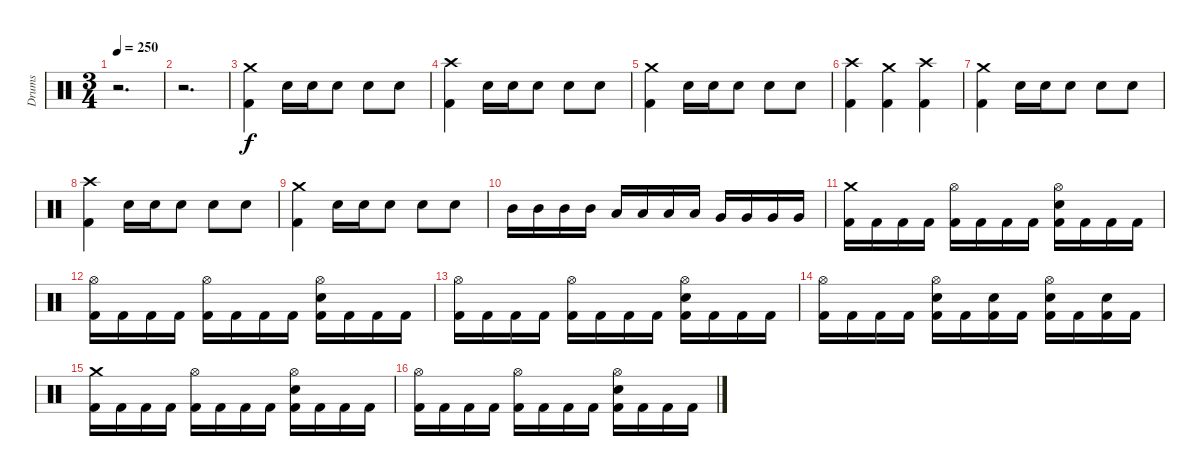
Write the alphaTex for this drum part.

\track ("Drums" "Drums") {instrument percussion}
\staff {score}
\articulation defaults
\ts (3 4)
\tempo 250
\clef neutral
\ks c
r.2{d dy f} |
r.2{d} |
("Crash medium (hit)" "Kick (hit) 2").4 "Snare (hit) 2".16 "Snare (hit) 2".16 "Snare (hit) 2".8 "Snare (hit) 2".8 "Snare (hit) 2".8 |
("Crash high (hit)" "Kick (hit) 2").4 "Snare (hit) 2".16 "Snare (hit) 2".16 "Snare (hit) 2".8 "Snare (hit) 2".8 "Snare (hit) 2".8 |
("Crash medium (hit)" "Kick (hit) 2").4 "Snare (hit) 2".16 "Snare (hit) 2".16 "Snare (hit) 2".8 "Snare (hit) 2".8 "Snare (hit) 2".8 |
("Crash high (hit)" "Kick (hit) 2").4 ("Crash medium (hit)" "Kick (hit) 2").4 ("Crash high (hit)" "Kick (hit) 2").4 |
("Crash medium (hit)" "Kick (hit) 2").4 "Snare (hit) 2".16 "Snare (hit) 2".16 "Snare (hit) 2".8 "Snare (hit) 2".8 "Snare (hit) 2".8 |
("Crash high (hit)" "Kick (hit) 2").4 "Snare (hit) 2".16 "Snare (hit) 2".16 "Snare (hit) 2".8 "Snare (hit) 2".8 "Snare (hit) 2".8 |
("Crash medium (hit)" "Kick (hit) 2").4 "Snare (hit) 2".16 "Snare (hit) 2".16 "Snare (hit) 2".8 "Snare (hit) 2".8 "Snare (hit) 2".8 |
"Mid Tom (hit)".16 "Mid Tom (hit)".16 "Mid Tom (hit)".16 "Mid Tom (hit)".16 "Low Tom (hit)".16 "Low Tom (hit)".16 "Low Tom (hit)".16 "Low Tom (hit)".16 "Very Low Tom (hit)".16 "Very Low Tom (hit)".16 "Very Low Tom (hit)".16 "Very Low Tom (hit)".16 |
("Crash medium (hit)" "Kick (hit) 2").16 "Kick (hit) 2".16 "Kick (hit) 2".16 "Kick (hit) 2".16 ("Hi-Hat (open)" "Kick (hit) 2").16 "Kick (hit) 2".16 "Kick (hit) 2".16 "Kick (hit) 2".16 ("Kick (hit) 2" "Hi-Hat (open)" "Snare (hit) 2").16 "Kick (hit) 2".16 "Kick (hit) 2".16 "Kick (hit) 2".16 |
("Hi-Hat (open)" "Kick (hit) 2").16 "Kick (hit) 2".16 "Kick (hit) 2".16 "Kick (hit) 2".16 ("Hi-Hat (open)" "Kick (hit) 2").16 "Kick (hit) 2".16 "Kick (hit) 2".16 "Kick (hit) 2".16 ("Kick (hit) 2" "Hi-Hat (open)" "Snare (hit) 2").16 "Kick (hit) 2".16 "Kick (hit) 2".16 "Kick (hit) 2".16 |
("Hi-Hat (open)" "Kick (hit) 2").16 "Kick (hit) 2".16 "Kick (hit) 2".16 "Kick (hit) 2".16 ("Hi-Hat (open)" "Kick (hit) 2").16 "Kick (hit) 2".16 "Kick (hit) 2".16 "Kick (hit) 2".16 ("Kick (hit) 2" "Hi-Hat (open)" "Snare (hit) 2").16 "Kick (hit) 2".16 "Kick (hit) 2".16 "Kick (hit) 2".16 |
("Hi-Hat (open)" "Kick (hit) 2").16 "Kick (hit) 2".16 "Kick (hit) 2".16 "Kick (hit) 2".16 ("Kick (hit) 2" "Hi-Hat (open)" "Snare (hit) 2").16 "Kick (hit) 2".16 ("Kick (hit) 2" "Snare (hit) 2").16 "Kick (hit) 2".16 ("Kick (hit) 2" "Hi-Hat (open)" "Snare (hit) 2").16 "Kick (hit) 2".16 ("Kick (hit) 2" "Snare (hit) 2").16 "Kick (hit) 2".16 |
("Crash medium (hit)" "Kick (hit) 2").16 "Kick (hit) 2".16 "Kick (hit) 2".16 "Kick (hit) 2".16 ("Hi-Hat (open)" "Kick (hit) 2").16 "Kick (hit) 2".16 "Kick (hit) 2".16 "Kick (hit) 2".16 ("Kick (hit) 2" "Hi-Hat (open)" "Snare (hit) 2").16 "Kick (hit) 2".16 "Kick (hit) 2".16 "Kick (hit) 2".16 |
("Hi-Hat (open)" "Kick (hit) 2").16 "Kick (hit) 2".16 "Kick (hit) 2".16 "Kick (hit) 2".16 ("Hi-Hat (open)" "Kick (hit) 2").16 "Kick (hit) 2".16 "Kick (hit) 2".16 "Kick (hit) 2".16 ("Kick (hit) 2" "Hi-Hat (open)" "Snare (hit) 2").16 "Kick (hit) 2".16 "Kick (hit) 2".16 "Kick (hit) 2".16
